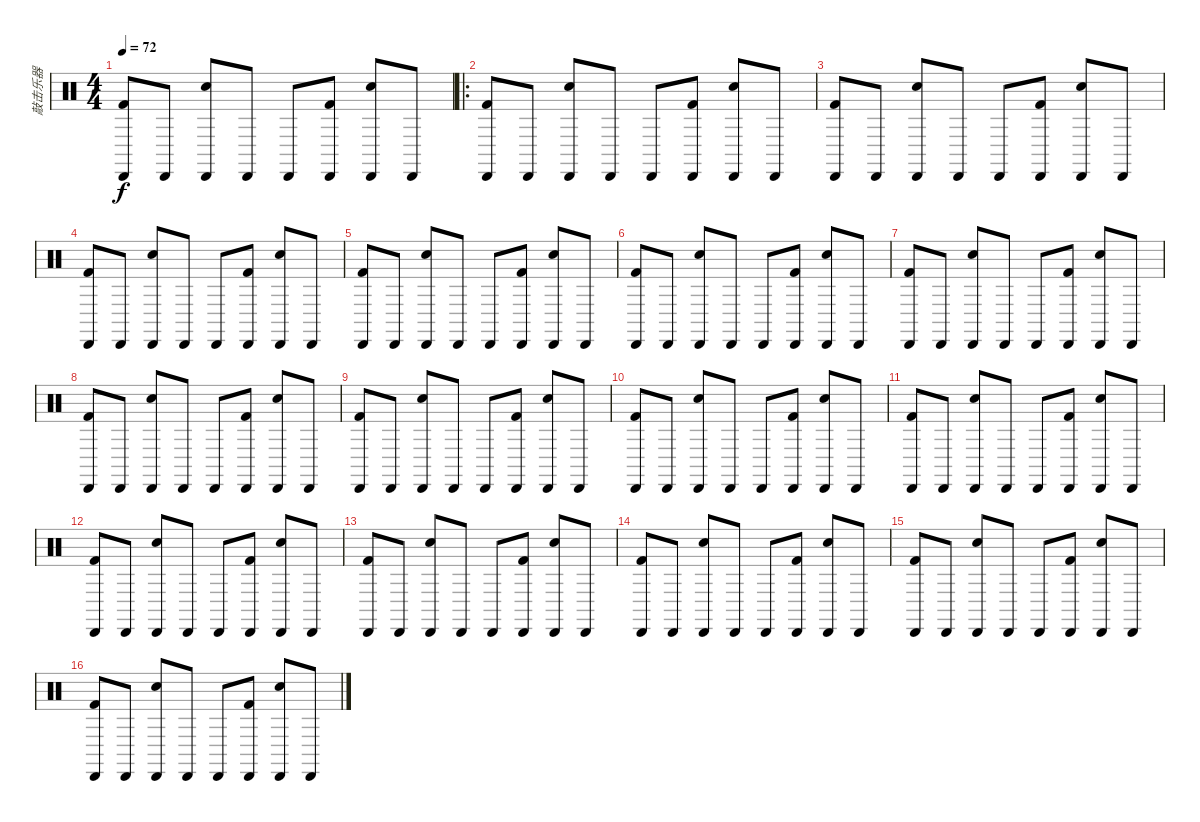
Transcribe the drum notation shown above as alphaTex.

\track ("敲击乐器" "敲击乐器") {instrument percussion}
\staff {score}
\articulation defaults
\ts (4 4)
\tempo 72
\clef neutral
\ks c
("Cabasa (hit)" "Kick (hit) 2").8{dy f} "Cabasa (hit)".8 ("Cabasa (hit)" "Electric Snare (hit)").8 "Cabasa (hit)".8 "Cabasa (hit)".8 ("Cabasa (hit)" "Kick (hit) 2").8 ("Cabasa (hit)" "Electric Snare (hit)").8 "Cabasa (hit)".8 |
\ro
("Cabasa (hit)" "Kick (hit) 2").8 "Cabasa (hit)".8 ("Cabasa (hit)" "Electric Snare (hit)").8 "Cabasa (hit)".8 "Cabasa (hit)".8 ("Cabasa (hit)" "Kick (hit) 2").8 ("Cabasa (hit)" "Electric Snare (hit)").8 "Cabasa (hit)".8 |
("Cabasa (hit)" "Kick (hit) 2").8 "Cabasa (hit)".8 ("Cabasa (hit)" "Electric Snare (hit)").8 "Cabasa (hit)".8 "Cabasa (hit)".8 ("Cabasa (hit)" "Kick (hit) 2").8 ("Cabasa (hit)" "Electric Snare (hit)").8 "Cabasa (hit)".8 |
("Cabasa (hit)" "Kick (hit) 2").8 "Cabasa (hit)".8 ("Cabasa (hit)" "Electric Snare (hit)").8 "Cabasa (hit)".8 "Cabasa (hit)".8 ("Cabasa (hit)" "Kick (hit) 2").8 ("Cabasa (hit)" "Electric Snare (hit)").8 "Cabasa (hit)".8 |
("Cabasa (hit)" "Kick (hit) 2").8 "Cabasa (hit)".8 ("Cabasa (hit)" "Electric Snare (hit)").8 "Cabasa (hit)".8 "Cabasa (hit)".8 ("Cabasa (hit)" "Kick (hit) 2").8 ("Cabasa (hit)" "Electric Snare (hit)").8 "Cabasa (hit)".8 |
("Cabasa (hit)" "Kick (hit) 2").8 "Cabasa (hit)".8 ("Cabasa (hit)" "Electric Snare (hit)").8 "Cabasa (hit)".8 "Cabasa (hit)".8 ("Cabasa (hit)" "Kick (hit) 2").8 ("Cabasa (hit)" "Electric Snare (hit)").8 "Cabasa (hit)".8 |
("Cabasa (hit)" "Kick (hit) 2").8 "Cabasa (hit)".8 ("Cabasa (hit)" "Electric Snare (hit)").8 "Cabasa (hit)".8 "Cabasa (hit)".8 ("Cabasa (hit)" "Kick (hit) 2").8 ("Cabasa (hit)" "Electric Snare (hit)").8 "Cabasa (hit)".8 |
("Cabasa (hit)" "Kick (hit) 2").8 "Cabasa (hit)".8 ("Cabasa (hit)" "Electric Snare (hit)").8 "Cabasa (hit)".8 "Cabasa (hit)".8 ("Cabasa (hit)" "Kick (hit) 2").8 ("Cabasa (hit)" "Electric Snare (hit)").8 "Cabasa (hit)".8 |
("Cabasa (hit)" "Kick (hit) 2").8 "Cabasa (hit)".8 ("Cabasa (hit)" "Electric Snare (hit)").8 "Cabasa (hit)".8 "Cabasa (hit)".8 ("Cabasa (hit)" "Kick (hit) 2").8 ("Cabasa (hit)" "Electric Snare (hit)").8 "Cabasa (hit)".8 |
("Cabasa (hit)" "Kick (hit) 2").8 "Cabasa (hit)".8 ("Cabasa (hit)" "Electric Snare (hit)").8 "Cabasa (hit)".8 "Cabasa (hit)".8 ("Cabasa (hit)" "Kick (hit) 2").8 ("Cabasa (hit)" "Electric Snare (hit)").8 "Cabasa (hit)".8 |
("Cabasa (hit)" "Kick (hit) 2").8 "Cabasa (hit)".8 ("Cabasa (hit)" "Electric Snare (hit)").8 "Cabasa (hit)".8 "Cabasa (hit)".8 ("Cabasa (hit)" "Kick (hit) 2").8 ("Cabasa (hit)" "Electric Snare (hit)").8 "Cabasa (hit)".8 |
("Cabasa (hit)" "Kick (hit) 2").8 "Cabasa (hit)".8 ("Cabasa (hit)" "Electric Snare (hit)").8 "Cabasa (hit)".8 "Cabasa (hit)".8 ("Cabasa (hit)" "Kick (hit) 2").8 ("Cabasa (hit)" "Electric Snare (hit)").8 "Cabasa (hit)".8 |
("Cabasa (hit)" "Kick (hit) 2").8 "Cabasa (hit)".8 ("Cabasa (hit)" "Electric Snare (hit)").8 "Cabasa (hit)".8 "Cabasa (hit)".8 ("Cabasa (hit)" "Kick (hit) 2").8 ("Cabasa (hit)" "Electric Snare (hit)").8 "Cabasa (hit)".8 |
("Cabasa (hit)" "Kick (hit) 2").8 "Cabasa (hit)".8 ("Cabasa (hit)" "Electric Snare (hit)").8 "Cabasa (hit)".8 "Cabasa (hit)".8 ("Cabasa (hit)" "Kick (hit) 2").8 ("Cabasa (hit)" "Electric Snare (hit)").8 "Cabasa (hit)".8 |
("Cabasa (hit)" "Kick (hit) 2").8 "Cabasa (hit)".8 ("Cabasa (hit)" "Electric Snare (hit)").8 "Cabasa (hit)".8 "Cabasa (hit)".8 ("Cabasa (hit)" "Kick (hit) 2").8 ("Cabasa (hit)" "Electric Snare (hit)").8 "Cabasa (hit)".8 |
("Cabasa (hit)" "Kick (hit) 2").8 "Cabasa (hit)".8 ("Cabasa (hit)" "Electric Snare (hit)").8 "Cabasa (hit)".8 "Cabasa (hit)".8 ("Cabasa (hit)" "Kick (hit) 2").8 ("Cabasa (hit)" "Electric Snare (hit)").8 "Cabasa (hit)".8
